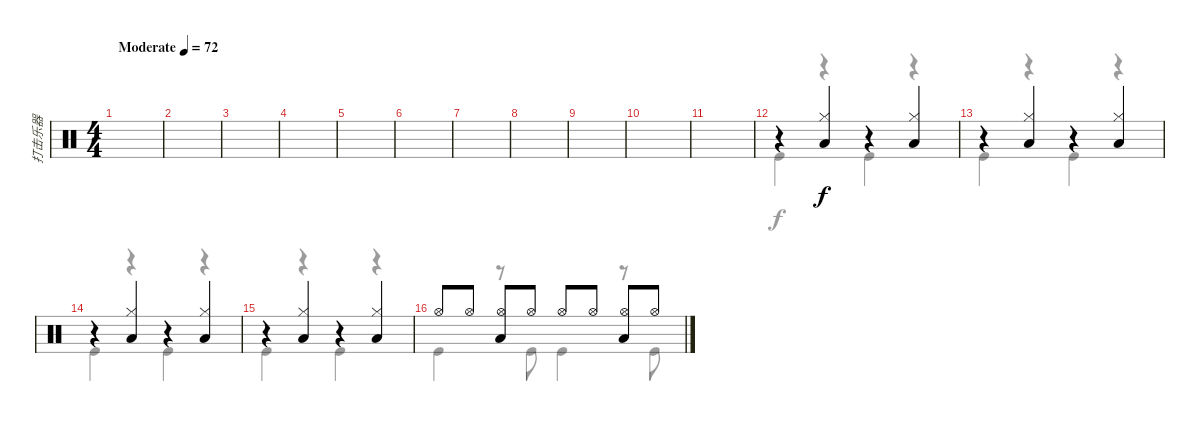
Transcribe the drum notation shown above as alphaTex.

\track ("打击乐器" "打击乐器") {instrument percussion}
\staff {score}
\articulation defaults
\voice
\ts (4 4)
\tempo (72 "Moderate")
\clef neutral
\ks c
|
|
|
|
|
|
|
|
|
|
|
r.4 ("Low Tom (hit)" "Hi-Hat (closed)").4 r.4 ("Low Tom (hit)" "Hi-Hat (closed)").4 |
r.4 ("Low Tom (hit)" "Hi-Hat (closed)").4 r.4 ("Low Tom (hit)" "Hi-Hat (closed)").4 |
r.4 ("Low Tom (hit)" "Hi-Hat (closed)").4 r.4 ("Low Tom (hit)" "Hi-Hat (closed)").4 |
r.4 ("Low Tom (hit)" "Hi-Hat (closed)").4 r.4 ("Low Tom (hit)" "Hi-Hat (closed)").4 |
"Hi-Hat (open)".8 "Hi-Hat (open)".8 ("Hi-Hat (open)" "Low Tom (hit)").8 "Hi-Hat (open)".8 "Hi-Hat (open)".8 "Hi-Hat (open)".8 ("Hi-Hat (open)" "Low Tom (hit)").8 "Hi-Hat (open)".8
\voice
\clef neutral
\ottava regular
\simile none
\ks c
|
|
|
|
|
|
|
|
|
|
|
"Kick (hit)".4 r.4 "Kick (hit)".4 r.4 |
"Kick (hit)".4 r.4 "Kick (hit)".4 r.4 |
"Kick (hit)".4 r.4 "Kick (hit)".4 r.4 |
"Kick (hit)".4 r.4 "Kick (hit)".4 r.4 |
"Kick (hit)".4 r.8 "Kick (hit)".8 "Kick (hit)".4 r.8 "Kick (hit)".8
